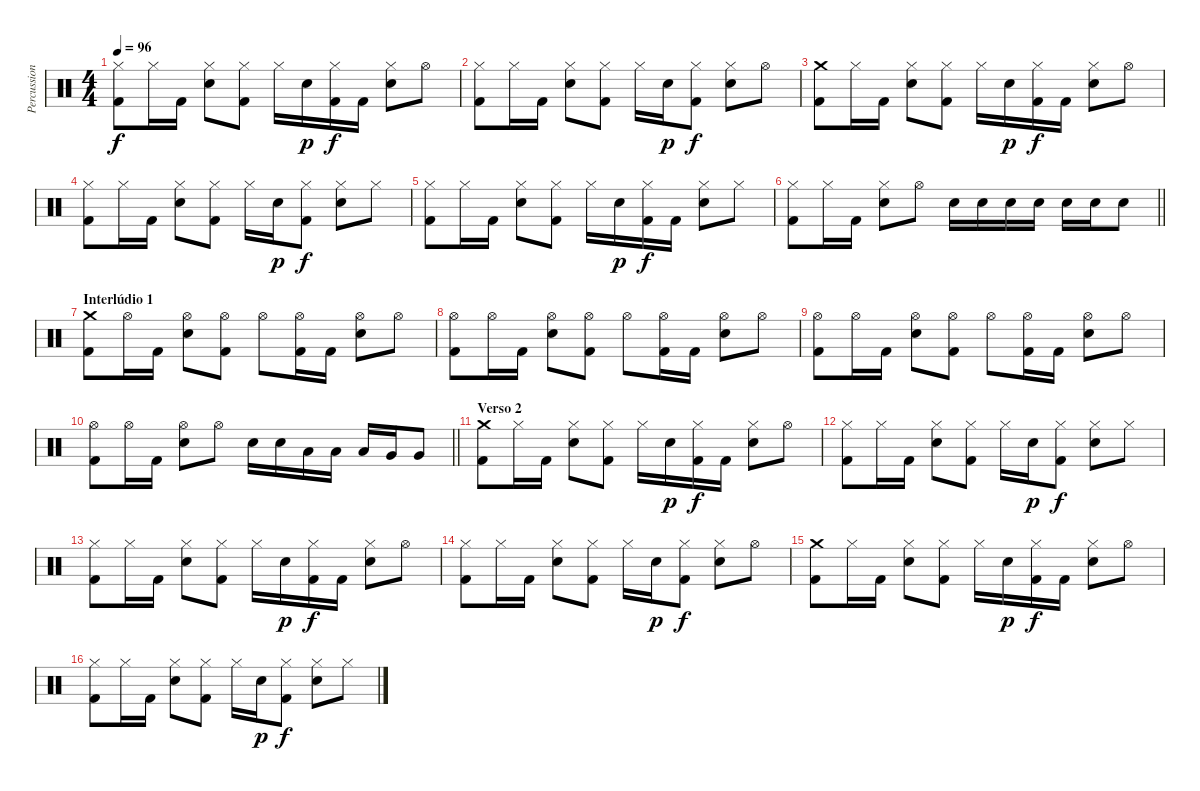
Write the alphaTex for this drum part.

\track ("Percussion" "Percussion") {instrument percussion}
\staff {score}
\articulation defaults
\ts (4 4)
\tempo 96
\clef neutral
\ks c
("Hi-Hat (closed)" "Kick (hit) 2").8{dy f} "Hi-Hat (closed)".16 "Kick (hit) 2".16 ("Hi-Hat (closed)" "Electric Snare (hit)").8 ("Hi-Hat (closed)" "Kick (hit) 2").8 "Hi-Hat (closed)".16 "Electric Snare (hit)".16{dy p} ("Hi-Hat (closed)" "Kick (hit) 2").16{dy f} "Kick (hit) 2".16 ("Hi-Hat (closed)" "Electric Snare (hit)").8 "Hi-Hat (open)".8 |
("Hi-Hat (closed)" "Kick (hit) 2").8 "Hi-Hat (closed)".16 "Kick (hit) 2".16 ("Hi-Hat (closed)" "Electric Snare (hit)").8 ("Hi-Hat (closed)" "Kick (hit) 2").8 "Hi-Hat (closed)".16 "Electric Snare (hit)".16{dy p} ("Hi-Hat (closed)" "Kick (hit) 2").8{dy f} ("Hi-Hat (closed)" "Electric Snare (hit)").8 "Hi-Hat (open)".8 |
("Crash medium (hit)" "Kick (hit) 2").8 "Hi-Hat (closed)".16 "Kick (hit) 2".16 ("Hi-Hat (closed)" "Electric Snare (hit)").8 ("Hi-Hat (closed)" "Kick (hit) 2").8 "Hi-Hat (closed)".16 "Electric Snare (hit)".16{dy p} ("Hi-Hat (closed)" "Kick (hit) 2").16{dy f} "Kick (hit) 2".16 ("Hi-Hat (closed)" "Electric Snare (hit)").8 "Hi-Hat (open)".8 |
("Hi-Hat (closed)" "Kick (hit) 2").8 "Hi-Hat (closed)".16 "Kick (hit) 2".16 ("Hi-Hat (closed)" "Electric Snare (hit)").8 ("Hi-Hat (closed)" "Kick (hit) 2").8 "Hi-Hat (closed)".16 "Electric Snare (hit)".16{dy p} ("Hi-Hat (closed)" "Kick (hit) 2").8{dy f} ("Hi-Hat (closed)" "Electric Snare (hit)").8 "Hi-Hat (closed)".8 |
("Hi-Hat (closed)" "Kick (hit) 2").8 "Hi-Hat (closed)".16 "Kick (hit) 2".16 ("Hi-Hat (closed)" "Electric Snare (hit)").8 ("Hi-Hat (closed)" "Kick (hit) 2").8 "Hi-Hat (closed)".16 "Electric Snare (hit)".16{dy p} ("Hi-Hat (closed)" "Kick (hit) 2").16{dy f} "Kick (hit) 2".16 ("Hi-Hat (closed)" "Electric Snare (hit)").8 "Hi-Hat (closed)".8 |
\barLineRight lightlight
("Hi-Hat (closed)" "Kick (hit) 2").8 "Hi-Hat (closed)".16 "Kick (hit) 2".16 ("Hi-Hat (closed)" "Electric Snare (hit)").8 "Hi-Hat (open)".8 "Electric Snare (hit)".16 "Electric Snare (hit)".16 "Electric Snare (hit)".16 "Electric Snare (hit)".16 "Electric Snare (hit)".16 "Electric Snare (hit)".16 "Electric Snare (hit)".8 |
\section ("" "Interlúdio 1")
("Crash medium (hit)" "Kick (hit) 2").8 "Hi-Hat (open)".16 "Kick (hit) 2".16 ("Hi-Hat (open)" "Electric Snare (hit)").8 ("Hi-Hat (open)" "Kick (hit) 2").8 "Hi-Hat (open)".8 ("Hi-Hat (open)" "Kick (hit) 2").16 "Kick (hit) 2".16 ("Hi-Hat (open)" "Electric Snare (hit)").8 "Hi-Hat (open)".8 |
("Hi-Hat (open)" "Kick (hit) 2").8 "Hi-Hat (open)".16 "Kick (hit) 2".16 ("Hi-Hat (open)" "Electric Snare (hit)").8 ("Hi-Hat (open)" "Kick (hit) 2").8 "Hi-Hat (open)".8 ("Hi-Hat (open)" "Kick (hit) 2").16 "Kick (hit) 2".16 ("Hi-Hat (open)" "Electric Snare (hit)").8 "Hi-Hat (open)".8 |
("Hi-Hat (open)" "Kick (hit) 2").8 "Hi-Hat (open)".16 "Kick (hit) 2".16 ("Hi-Hat (open)" "Electric Snare (hit)").8 ("Hi-Hat (open)" "Kick (hit) 2").8 "Hi-Hat (open)".8 ("Hi-Hat (open)" "Kick (hit) 2").16 "Kick (hit) 2".16 ("Hi-Hat (open)" "Electric Snare (hit)").8 "Hi-Hat (open)".8 |
\barLineRight lightlight
("Hi-Hat (open)" "Kick (hit) 2").8 "Hi-Hat (open)".16 "Kick (hit) 2".16 ("Hi-Hat (open)" "Electric Snare (hit)").8 "Hi-Hat (open)".8 "Electric Snare (hit)".16 "Electric Snare (hit)".16 "Low Tom (hit)".16 "Low Tom (hit)".16 "Low Tom (hit)".16 "Very Low Tom (hit)".16 "Very Low Tom (hit)".8 |
\section ("" "Verso 2")
("Crash medium (hit)" "Kick (hit) 2").8 "Hi-Hat (closed)".16 "Kick (hit) 2".16 ("Hi-Hat (closed)" "Electric Snare (hit)").8 ("Hi-Hat (closed)" "Kick (hit) 2").8 "Hi-Hat (closed)".16 "Electric Snare (hit)".16{dy p} ("Hi-Hat (closed)" "Kick (hit) 2").16{dy f} "Kick (hit) 2".16 ("Hi-Hat (closed)" "Electric Snare (hit)").8 "Hi-Hat (open)".8 |
("Hi-Hat (closed)" "Kick (hit) 2").8 "Hi-Hat (closed)".16 "Kick (hit) 2".16 ("Hi-Hat (closed)" "Electric Snare (hit)").8 ("Hi-Hat (closed)" "Kick (hit) 2").8 "Hi-Hat (closed)".16 "Electric Snare (hit)".16{dy p} ("Hi-Hat (closed)" "Kick (hit) 2").8{dy f} ("Hi-Hat (closed)" "Electric Snare (hit)").8 "Hi-Hat (closed)".8 |
("Hi-Hat (closed)" "Kick (hit) 2").8 "Hi-Hat (closed)".16 "Kick (hit) 2".16 ("Hi-Hat (closed)" "Electric Snare (hit)").8 ("Hi-Hat (closed)" "Kick (hit) 2").8 "Hi-Hat (closed)".16 "Electric Snare (hit)".16{dy p} ("Hi-Hat (closed)" "Kick (hit) 2").16{dy f} "Kick (hit) 2".16 ("Hi-Hat (closed)" "Electric Snare (hit)").8 "Hi-Hat (open)".8 |
("Hi-Hat (closed)" "Kick (hit) 2").8 "Hi-Hat (closed)".16 "Kick (hit) 2".16 ("Hi-Hat (closed)" "Electric Snare (hit)").8 ("Hi-Hat (closed)" "Kick (hit) 2").8 "Hi-Hat (closed)".16 "Electric Snare (hit)".16{dy p} ("Hi-Hat (closed)" "Kick (hit) 2").8{dy f} ("Hi-Hat (closed)" "Electric Snare (hit)").8 "Hi-Hat (open)".8 |
("Crash medium (hit)" "Kick (hit) 2").8 "Hi-Hat (closed)".16 "Kick (hit) 2".16 ("Hi-Hat (closed)" "Electric Snare (hit)").8 ("Hi-Hat (closed)" "Kick (hit) 2").8 "Hi-Hat (closed)".16 "Electric Snare (hit)".16{dy p} ("Hi-Hat (closed)" "Kick (hit) 2").16{dy f} "Kick (hit) 2".16 ("Hi-Hat (closed)" "Electric Snare (hit)").8 "Hi-Hat (open)".8 |
("Hi-Hat (closed)" "Kick (hit) 2").8 "Hi-Hat (closed)".16 "Kick (hit) 2".16 ("Hi-Hat (closed)" "Electric Snare (hit)").8 ("Hi-Hat (closed)" "Kick (hit) 2").8 "Hi-Hat (closed)".16 "Electric Snare (hit)".16{dy p} ("Hi-Hat (closed)" "Kick (hit) 2").8{dy f} ("Hi-Hat (closed)" "Electric Snare (hit)").8 "Hi-Hat (closed)".8
